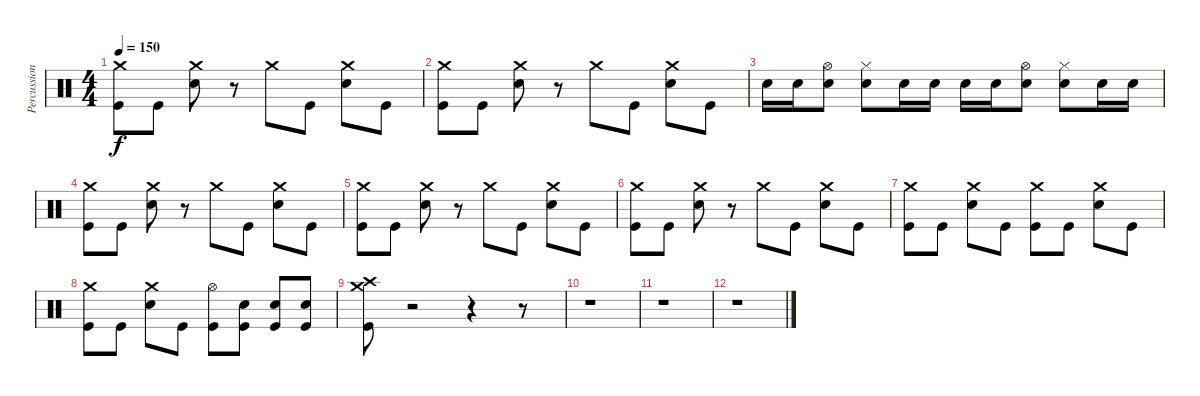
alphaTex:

\track ("Percussion" "Percussion") {instrument percussion}
\staff {score}
\articulation defaults
\ts (4 4)
\tempo 150
\clef neutral
\ks c
("Crash medium (hit)" "Kick (hit)").8{dy f} "Kick (hit)".8 ("Crash medium (hit)" "Snare (hit) 2").8 r.8 "Crash medium (hit)".8 "Kick (hit)".8 ("Crash medium (hit)" "Snare (hit) 2").8 "Kick (hit)".8 |
("Crash medium (hit)" "Kick (hit)").8 "Kick (hit)".8 ("Crash medium (hit)" "Snare (hit) 2").8 r.8 "Crash medium (hit)".8 "Kick (hit)".8 ("Crash medium (hit)" "Snare (hit) 2").8 "Kick (hit)".8 |
"Snare (hit) 2".16 "Snare (hit) 2".16 ("Hi-Hat (open)" "Snare (hit) 2").8 ("Hi-Hat (closed)" "Snare (hit) 2").8 "Snare (hit) 2".16 "Snare (hit) 2".16 "Snare (hit) 2".16 "Snare (hit) 2".16 ("Hi-Hat (open)" "Snare (hit) 2").8 ("Hi-Hat (closed)" "Snare (hit) 2").8 "Snare (hit) 2".16 "Snare (hit) 2".16 |
("Crash medium (hit)" "Kick (hit)").8 "Kick (hit)".8 ("Crash medium (hit)" "Snare (hit) 2").8 r.8 "Crash medium (hit)".8 "Kick (hit)".8 ("Crash medium (hit)" "Snare (hit) 2").8 "Kick (hit)".8 |
("Crash medium (hit)" "Kick (hit)").8 "Kick (hit)".8 ("Crash medium (hit)" "Snare (hit) 2").8 r.8 "Crash medium (hit)".8 "Kick (hit)".8 ("Crash medium (hit)" "Snare (hit) 2").8 "Kick (hit)".8 |
("Crash medium (hit)" "Kick (hit)").8 "Kick (hit)".8 ("Crash medium (hit)" "Snare (hit) 2").8 r.8 "Crash medium (hit)".8 "Kick (hit)".8 ("Crash medium (hit)" "Snare (hit) 2").8 "Kick (hit)".8 |
("Crash medium (hit)" "Kick (hit)").8 "Kick (hit)".8 ("Crash medium (hit)" "Snare (hit) 2").8 "Kick (hit)".8 ("Crash medium (hit)" "Kick (hit)").8 "Kick (hit)".8 ("Crash medium (hit)" "Snare (hit) 2").8 "Kick (hit)".8 |
("Crash medium (hit)" "Kick (hit)").8 "Kick (hit)".8 ("Crash medium (hit)" "Snare (hit) 2").8 "Kick (hit)".8 ("Hi-Hat (open)" "Kick (hit)").8 ("Snare (hit) 2" "Kick (hit)").8 ("Snare (hit) 2" "Kick (hit)").8 ("Snare (hit) 2" "Kick (hit)").8 |
("Crash high (hit)" "Crash medium (hit)" "Kick (hit)").8 r.2 r.4 r.8 |
r.1 |
r.1 |
r.1
